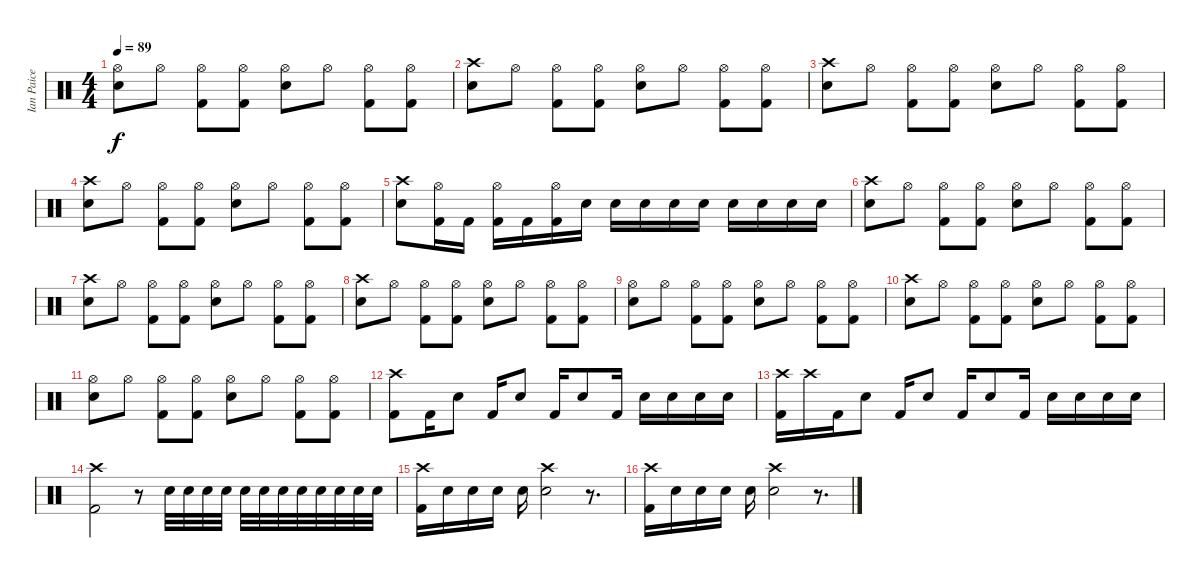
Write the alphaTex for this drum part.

\track ("Ian Paice" "Ian Paice") {instrument percussion}
\staff {score}
\articulation defaults
\ts (4 4)
\tempo 89
\clef neutral
\ks c
("Hi-Hat (open)" "Electric Snare (hit)").8{dy f} "Hi-Hat (open)".8 ("Hi-Hat (open)" "Kick (hit) 2").8 ("Hi-Hat (open)" "Kick (hit) 2").8 ("Hi-Hat (open)" "Electric Snare (hit)").8 "Hi-Hat (open)".8 ("Hi-Hat (open)" "Kick (hit) 2").8 ("Hi-Hat (open)" "Kick (hit) 2").8 |
("Crash high (hit)" "Electric Snare (hit)").8 "Hi-Hat (open)".8 ("Hi-Hat (open)" "Kick (hit) 2").8 ("Hi-Hat (open)" "Kick (hit) 2").8 ("Hi-Hat (open)" "Electric Snare (hit)").8 "Hi-Hat (open)".8 ("Hi-Hat (open)" "Kick (hit) 2").8 ("Hi-Hat (open)" "Kick (hit) 2").8 |
("Crash high (hit)" "Electric Snare (hit)").8 "Hi-Hat (open)".8 ("Hi-Hat (open)" "Kick (hit) 2").8 ("Hi-Hat (open)" "Kick (hit) 2").8 ("Hi-Hat (open)" "Electric Snare (hit)").8 "Hi-Hat (open)".8 ("Hi-Hat (open)" "Kick (hit) 2").8 ("Hi-Hat (open)" "Kick (hit) 2").8 |
("Crash high (hit)" "Electric Snare (hit)").8 "Hi-Hat (open)".8 ("Hi-Hat (open)" "Kick (hit) 2").8 ("Hi-Hat (open)" "Kick (hit) 2").8 ("Hi-Hat (open)" "Electric Snare (hit)").8 "Hi-Hat (open)".8 ("Hi-Hat (open)" "Kick (hit) 2").8 ("Hi-Hat (open)" "Kick (hit) 2").8 |
("Crash high (hit)" "Electric Snare (hit)").8 ("Hi-Hat (open)" "Kick (hit) 2").16 "Kick (hit) 2".16 ("Hi-Hat (open)" "Kick (hit) 2").16 "Kick (hit) 2".16 ("Hi-Hat (open)" "Kick (hit) 2").16 "Electric Snare (hit)".16 "Electric Snare (hit)".16 "Electric Snare (hit)".16 "Electric Snare (hit)".16 "Electric Snare (hit)".16 "Electric Snare (hit)".16 "Electric Snare (hit)".16 "Electric Snare (hit)".16 "Electric Snare (hit)".16 |
("Crash high (hit)" "Electric Snare (hit)").8 "Hi-Hat (open)".8 ("Hi-Hat (open)" "Kick (hit) 2").8 ("Hi-Hat (open)" "Kick (hit) 2").8 ("Hi-Hat (open)" "Electric Snare (hit)").8 "Hi-Hat (open)".8 ("Hi-Hat (open)" "Kick (hit) 2").8 ("Hi-Hat (open)" "Kick (hit) 2").8 |
("Crash high (hit)" "Electric Snare (hit)").8 "Hi-Hat (open)".8 ("Hi-Hat (open)" "Kick (hit) 2").8 ("Hi-Hat (open)" "Kick (hit) 2").8 ("Hi-Hat (open)" "Electric Snare (hit)").8 "Hi-Hat (open)".8 ("Hi-Hat (open)" "Kick (hit) 2").8 ("Hi-Hat (open)" "Kick (hit) 2").8 |
("Crash high (hit)" "Electric Snare (hit)").8 "Hi-Hat (open)".8 ("Hi-Hat (open)" "Kick (hit) 2").8 ("Hi-Hat (open)" "Kick (hit) 2").8 ("Hi-Hat (open)" "Electric Snare (hit)").8 "Hi-Hat (open)".8 ("Hi-Hat (open)" "Kick (hit) 2").8 ("Hi-Hat (open)" "Kick (hit) 2").8 |
("Hi-Hat (open)" "Electric Snare (hit)").8 "Hi-Hat (open)".8 ("Hi-Hat (open)" "Kick (hit) 2").8 ("Hi-Hat (open)" "Kick (hit) 2").8 ("Hi-Hat (open)" "Electric Snare (hit)").8 "Hi-Hat (open)".8 ("Hi-Hat (open)" "Kick (hit) 2").8 ("Hi-Hat (open)" "Kick (hit) 2").8 |
("Crash high (hit)" "Electric Snare (hit)").8 "Hi-Hat (open)".8 ("Hi-Hat (open)" "Kick (hit) 2").8 ("Hi-Hat (open)" "Kick (hit) 2").8 ("Hi-Hat (open)" "Electric Snare (hit)").8 "Hi-Hat (open)".8 ("Hi-Hat (open)" "Kick (hit) 2").8 ("Hi-Hat (open)" "Kick (hit) 2").8 |
("Hi-Hat (open)" "Electric Snare (hit)").8 "Hi-Hat (open)".8 ("Hi-Hat (open)" "Kick (hit) 2").8 ("Hi-Hat (open)" "Kick (hit) 2").8 ("Hi-Hat (open)" "Electric Snare (hit)").8 "Hi-Hat (open)".8 ("Hi-Hat (open)" "Kick (hit) 2").8 ("Hi-Hat (open)" "Kick (hit) 2").8 |
("Crash high (hit)" "Kick (hit) 2").8 "Kick (hit) 2".16 "Electric Snare (hit)".8 "Kick (hit) 2".16 "Electric Snare (hit)".8 "Kick (hit) 2".16 "Electric Snare (hit)".8 "Kick (hit) 2".16 "Electric Snare (hit)".16 "Electric Snare (hit)".16 "Electric Snare (hit)".16 "Electric Snare (hit)".16 |
("Crash high (hit)" "Kick (hit) 2").16 "Crash high (hit)".16 "Kick (hit) 2".16 "Electric Snare (hit)".8 "Kick (hit) 2".16 "Electric Snare (hit)".8 "Kick (hit) 2".16 "Electric Snare (hit)".8 "Kick (hit) 2".16 "Electric Snare (hit)".16 "Electric Snare (hit)".16 "Electric Snare (hit)".16 "Electric Snare (hit)".16 |
("Crash high (hit)" "Kick (hit) 2").2 r.8 "Electric Snare (hit)".32 "Electric Snare (hit)".32 "Electric Snare (hit)".32 "Electric Snare (hit)".32 "Electric Snare (hit)".32 "Electric Snare (hit)".32 "Electric Snare (hit)".32 "Electric Snare (hit)".32 "Electric Snare (hit)".32 "Electric Snare (hit)".32 "Electric Snare (hit)".32 "Electric Snare (hit)".32 |
("Crash high (hit)" "Kick (hit) 2").16 "Electric Snare (hit)".16 "Electric Snare (hit)".16 "Electric Snare (hit)".16 "Electric Snare (hit)".16 ("Crash high (hit)" "Electric Snare (hit)").2 r.8{d} |
("Crash high (hit)" "Kick (hit) 2").16 "Electric Snare (hit)".16 "Electric Snare (hit)".16 "Electric Snare (hit)".16 "Electric Snare (hit)".16 ("Crash high (hit)" "Electric Snare (hit)").2 r.8{d}
